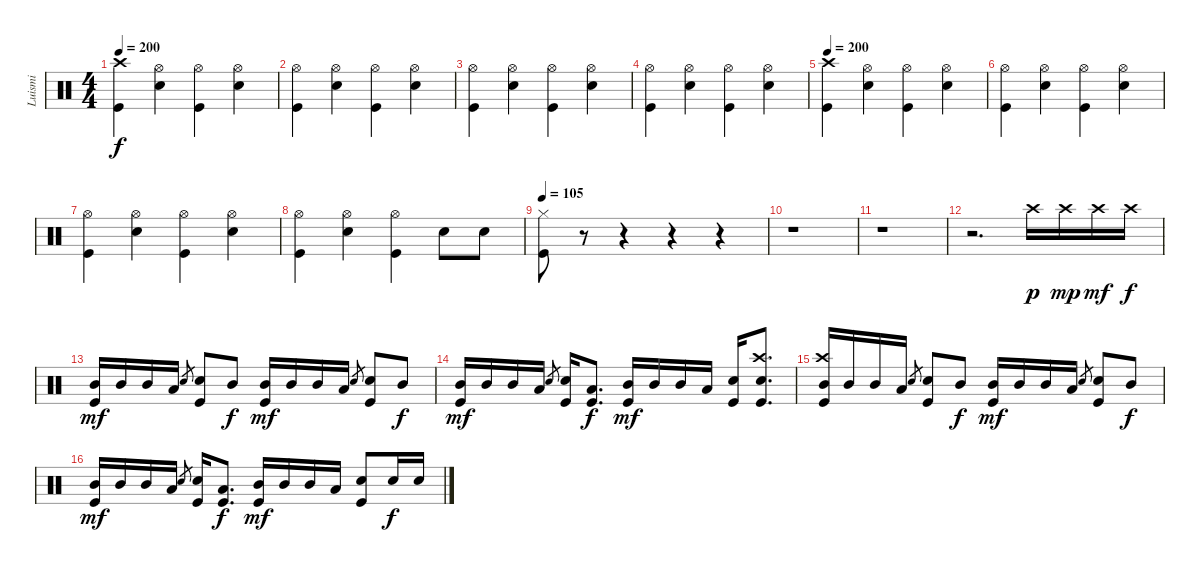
\track ("Luismi" "Luismi") {instrument percussion}
\staff {score}
\articulation defaults
\ts (4 4)
\tempo 200
\clef neutral
\ks c
("Kick (hit)" "Crash high (hit)").4{dy f} ("Snare (hit) 2" "Hi-Hat (open)").4 ("Kick (hit)" "Hi-Hat (open)").4 ("Snare (hit) 2" "Hi-Hat (open)").4 |
("Kick (hit)" "Hi-Hat (open)").4 ("Hi-Hat (open)" "Snare (hit) 2").4 ("Kick (hit)" "Hi-Hat (open)").4 ("Snare (hit) 2" "Hi-Hat (open)").4 |
("Kick (hit)" "Hi-Hat (open)").4 ("Hi-Hat (open)" "Snare (hit) 2").4 ("Kick (hit)" "Hi-Hat (open)").4 ("Snare (hit) 2" "Hi-Hat (open)").4 |
("Kick (hit)" "Hi-Hat (open)").4 ("Hi-Hat (open)" "Snare (hit) 2").4 ("Kick (hit)" "Hi-Hat (open)").4 ("Snare (hit) 2" "Hi-Hat (open)").4 |
\tempo 200
("Kick (hit)" "Crash high (hit)").4 ("Snare (hit) 2" "Hi-Hat (open)").4 ("Kick (hit)" "Hi-Hat (open)").4 ("Snare (hit) 2" "Hi-Hat (open)").4 |
("Kick (hit)" "Hi-Hat (open)").4 ("Hi-Hat (open)" "Snare (hit) 2").4 ("Kick (hit)" "Hi-Hat (open)").4 ("Snare (hit) 2" "Hi-Hat (open)").4 |
("Kick (hit)" "Hi-Hat (open)").4 ("Hi-Hat (open)" "Snare (hit) 2").4 ("Kick (hit)" "Hi-Hat (open)").4 ("Snare (hit) 2" "Hi-Hat (open)").4 |
("Kick (hit)" "Hi-Hat (open)").4 ("Hi-Hat (open)" "Snare (hit) 2").4 ("Kick (hit)" "Hi-Hat (open)").4 "Snare (hit) 2".8 "Snare (hit) 2".8 |
\tempo 105
("Kick (hit)" "Hi-Hat (closed)").8 r.8 r.4 r.4 r.4 |
r.1 |
r.1 |
r.2{d} "Crash high (hit)".16{dy p} "Crash high (hit)".16{dy mp} "Crash high (hit)".16{dy mf} "Crash high (hit)".16{dy f} |
("Mid Tom (hit)" "Kick (hit)").16{dy mf} "Mid Tom (hit)".16 "Mid Tom (hit)".16 "Low Tom (hit)".16 "Snare (hit) 2".8{gr} ("Snare (hit) 2" "Kick (hit)").8 "Mid Tom (hit)".8{dy f} ("Mid Tom (hit)" "Kick (hit)").16{dy mf} "Mid Tom (hit)".16 "Mid Tom (hit)".16 "Low Tom (hit)".16 "Snare (hit) 2".8{gr} ("Snare (hit) 2" "Kick (hit)").8 "Mid Tom (hit)".8{dy f} |
("Mid Tom (hit)" "Kick (hit)").16{dy mf} "Mid Tom (hit)".16 "Mid Tom (hit)".16 "Low Tom (hit)".16 "Snare (hit) 2".8{gr} ("Snare (hit) 2" "Kick (hit)").16 ("Low Tom (hit)" "Kick (hit)").8{d dy f} ("Mid Tom (hit)" "Kick (hit)").16{dy mf} "Mid Tom (hit)".16 "Mid Tom (hit)".16 "Low Tom (hit)".16 ("Snare (hit) 2" "Kick (hit)").16 ("Crash high (hit)" "Kick (hit)" "Snare (hit) 2").8{d} |
("Mid Tom (hit)" "Kick (hit)" "Crash high (hit)").16 "Mid Tom (hit)".16 "Mid Tom (hit)".16 "Low Tom (hit)".16 "Snare (hit) 2".8{gr} ("Snare (hit) 2" "Kick (hit)").8 "Mid Tom (hit)".8{dy f} ("Mid Tom (hit)" "Kick (hit)").16{dy mf} "Mid Tom (hit)".16 "Mid Tom (hit)".16 "Low Tom (hit)".16 "Snare (hit) 2".8{gr} ("Snare (hit) 2" "Kick (hit)").8 "Mid Tom (hit)".8{dy f} |
("Mid Tom (hit)" "Kick (hit)").16{dy mf} "Mid Tom (hit)".16 "Mid Tom (hit)".16 "Low Tom (hit)".16 "Snare (hit) 2".8{gr} ("Snare (hit) 2" "Kick (hit)").16 ("Low Tom (hit)" "Kick (hit)").8{d dy f} ("Mid Tom (hit)" "Kick (hit)").16{dy mf} "Mid Tom (hit)".16 "Mid Tom (hit)".16 "Low Tom (hit)".16 ("Snare (hit) 2" "Kick (hit)").8 "Snare (hit) 2".16{dy f} "Snare (hit) 2".16
